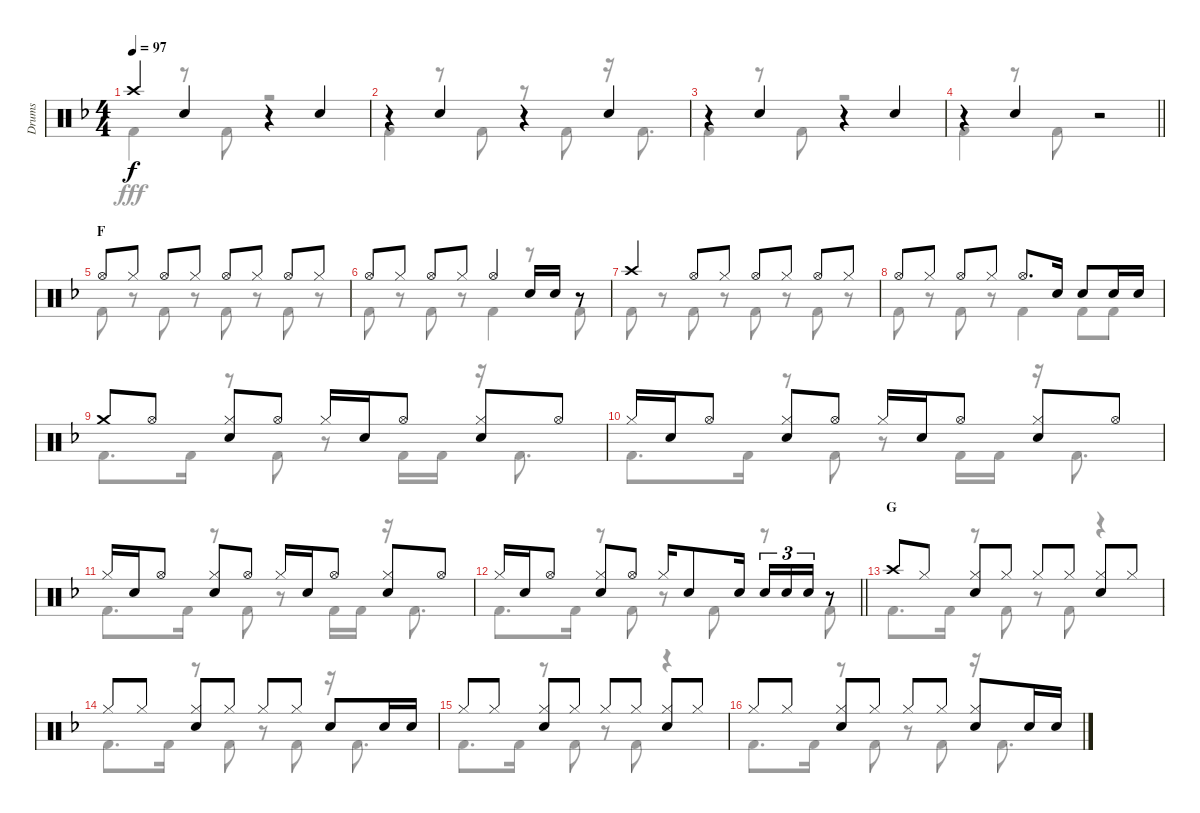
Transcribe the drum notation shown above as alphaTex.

\track ("Drums" "Drums") {instrument percussion}
\staff {score}
\articulation defaults
\voice
\ts (4 4)
\tempo 97
\clef neutral
\ks f "Crash high (hit)".4{dy f} "Snare (hit) 2".4
r.4 "Snare (hit) 2".4 |
r.4 "Snare (hit) 2".4 r.4 "Snare (hit) 2".4 |
r.4 "Snare (hit) 2".4 r.4 "Snare (hit) 2".4 |
\barLineRight lightlight
r.4 "Snare (hit) 2".4 r.2 |
\section ("" "F")
"Hi-Hat (open)".8 "Hi-Hat (closed)".8 "Hi-Hat (open)".8 "Hi-Hat (closed)".8 "Hi-Hat (open)".8 "Hi-Hat (closed)".8 "Hi-Hat (open)".8 "Hi-Hat (closed)".8 |
"Hi-Hat (open)".8 "Hi-Hat (closed)".8 "Hi-Hat (open)".8 "Hi-Hat (closed)".8 "Hi-Hat (open)".4 "Snare (hit) 2".16 "Snare (hit) 2".16 r.8 |
"Crash high (hit)".4 "Hi-Hat (open)".8 "Hi-Hat (closed)".8 "Hi-Hat (open)".8 "Hi-Hat (closed)".8 "Hi-Hat (open)".8 "Hi-Hat (closed)".8 |
"Hi-Hat (open)".8 "Hi-Hat (closed)".8 "Hi-Hat (open)".8 "Hi-Hat (closed)".8 "Hi-Hat (open)".8{d} "Snare (hit) 2".16 "Snare (hit) 2".8 "Snare (hit) 2".16 "Snare (hit) 2".16 |
"Crash medium (hit)".8 "Hi-Hat (open)".8 ("Hi-Hat (closed)" "Snare (hit) 2").8 "Hi-Hat (open)".8 "Hi-Hat (closed)".16 "Snare (hit) 2".16 "Hi-Hat (open)".8 ("Hi-Hat (closed)" "Snare (hit) 2").8 "Hi-Hat (open)".8 |
"Hi-Hat (closed)".16 "Snare (hit) 2".16 "Hi-Hat (open)".8 ("Hi-Hat (closed)" "Snare (hit) 2").8 "Hi-Hat (open)".8 "Hi-Hat (closed)".16 "Snare (hit) 2".16 "Hi-Hat (open)".8 ("Hi-Hat (closed)" "Snare (hit) 2").8 "Hi-Hat (open)".8 |
"Hi-Hat (closed)".16 "Snare (hit) 2".16 "Hi-Hat (open)".8 ("Hi-Hat (closed)" "Snare (hit) 2").8 "Hi-Hat (open)".8 "Hi-Hat (closed)".16 "Snare (hit) 2".16 "Hi-Hat (open)".8 ("Hi-Hat (closed)" "Snare (hit) 2").8 "Hi-Hat (open)".8 |
\barLineRight lightlight "Hi-Hat (closed)".16 "Snare (hit) 2".16 "Hi-Hat (open)".8
("Hi-Hat (closed)" "Snare (hit) 2").8 "Hi-Hat (open)".8 "Hi-Hat (closed)".16 "Snare (hit) 2".8 "Snare (hit) 2".16 "Snare (hit) 2".16{tu (3 2)} "Snare (hit) 2".16{tu (3 2)} "Snare (hit) 2".16{tu (3 2)} r.8 |
\section ("" "G")
"Crash high (hit)".8 "Hi-Hat (closed)".8 ("Hi-Hat (closed)" "Snare (hit) 2").8 "Hi-Hat (closed)".8 "Hi-Hat (closed)".8 "Hi-Hat (closed)".8 ("Hi-Hat (closed)" "Snare (hit) 2").8 "Hi-Hat (closed)".8 |
"Hi-Hat (closed)".8 "Hi-Hat (closed)".8 ("Hi-Hat (closed)" "Snare (hit) 2").8 "Hi-Hat (closed)".8 "Hi-Hat (closed)".8 "Hi-Hat (closed)".8 "Snare (hit) 2".8 "Snare (hit) 2".16 "Snare (hit) 2".16 |
"Hi-Hat (closed)".8 "Hi-Hat (closed)".8 ("Hi-Hat (closed)" "Snare (hit) 2").8 "Hi-Hat (closed)".8 "Hi-Hat (closed)".8 "Hi-Hat (closed)".8 ("Hi-Hat (closed)" "Snare (hit) 2").8 "Hi-Hat (closed)".8 |
"Hi-Hat (closed)".8 "Hi-Hat (closed)".8 ("Hi-Hat (closed)" "Snare (hit) 2").8 "Hi-Hat (closed)".8 "Hi-Hat (closed)".8 "Hi-Hat (closed)".8 ("Hi-Hat (closed)" "Snare (hit) 2").8 "Snare (hit) 2".16 "Snare (hit) 2".16
\voice
\clef neutral
\ottava regular
\simile none
\ks f "Kick (hit) 2".4{dy fff}
r.8 "Kick (hit) 2".8 r.2 |
"Kick (hit) 2".4 r.8 "Kick (hit) 2".8 r.8 "Kick (hit) 2".8 r.16 "Kick (hit) 2".8{d} |
"Kick (hit) 2".4 r.8 "Kick (hit) 2".8 r.2 |
\barLineRight lightlight "Kick (hit) 2".4
r.8 "Kick (hit) 2".8 r.2 |
"Kick (hit) 2".8 r.8 "Kick (hit) 2".8 r.8 "Kick (hit) 2".8 r.8 "Kick (hit) 2".8 r.8 |
"Kick (hit) 2".8 r.8 "Kick (hit) 2".8 r.8 "Kick (hit) 2".4 r.8 "Kick (hit) 2".8 |
"Kick (hit) 2".8 r.8 "Kick (hit) 2".8 r.8 "Kick (hit) 2".8 r.8 "Kick (hit) 2".8 r.8 |
"Kick (hit) 2".8 r.8 "Kick (hit) 2".8 r.8 "Kick (hit) 2".4 "Kick (hit) 2".8 "Kick (hit) 2".8 |
"Kick (hit) 2".8{d} "Kick (hit) 2".16 r.8 "Kick (hit) 2".8 r.8 "Kick (hit) 2".16 "Kick (hit) 2".16 r.16 "Kick (hit) 2".8{d} |
"Kick (hit) 2".8{d} "Kick (hit) 2".16 r.8 "Kick (hit) 2".8 r.8 "Kick (hit) 2".16 "Kick (hit) 2".16 r.16 "Kick (hit) 2".8{d} |
"Kick (hit) 2".8{d} "Kick (hit) 2".16 r.8 "Kick (hit) 2".8 r.8 "Kick (hit) 2".16 "Kick (hit) 2".16 r.16 "Kick (hit) 2".8{d} |
\barLineRight lightlight "Kick (hit) 2".8{d} "Kick (hit) 2".16
r.8 "Kick (hit) 2".8 r.8 "Kick (hit) 2".8 r.8 "Kick (hit) 2".8 |
"Kick (hit) 2".8{d} "Kick (hit) 2".16 r.8 "Kick (hit) 2".8 r.8 "Kick (hit) 2".8 r.4 |
"Kick (hit) 2".8{d} "Kick (hit) 2".16 r.8 "Kick (hit) 2".8 r.8 "Kick (hit) 2".8 r.16 "Kick (hit) 2".8{d} |
"Kick (hit) 2".8{d} "Kick (hit) 2".16 r.8 "Kick (hit) 2".8 r.8 "Kick (hit) 2".8 r.4 |
"Kick (hit) 2".8{d} "Kick (hit) 2".16 r.8 "Kick (hit) 2".8 r.8 "Kick (hit) 2".8 r.16 "Kick (hit) 2".8{d}
